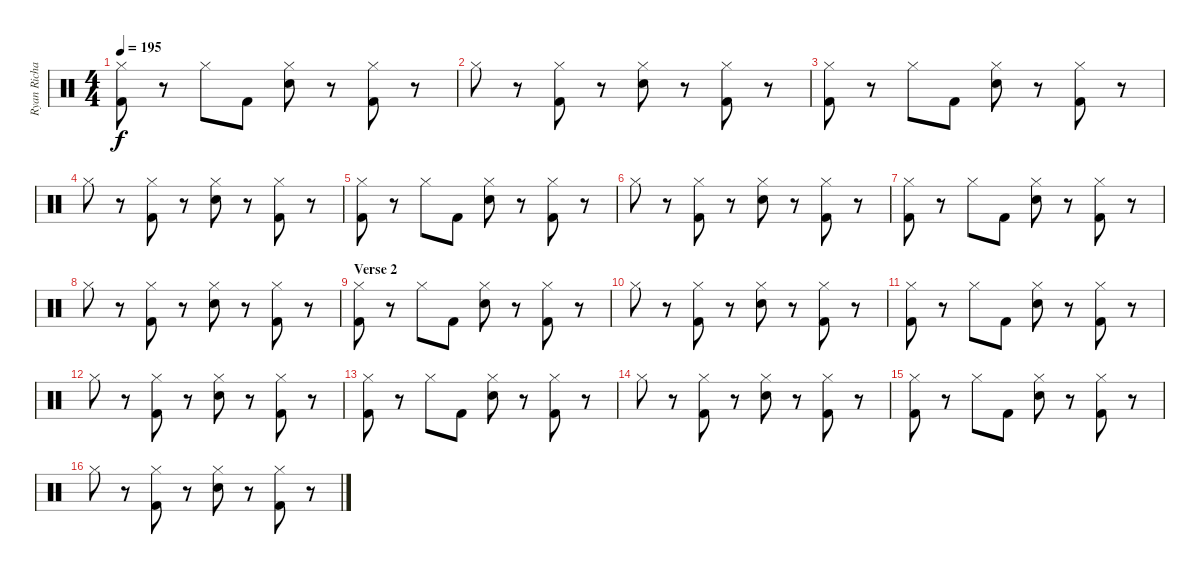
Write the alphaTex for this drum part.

\track ("Ryan Richards" "Ryan Richa") {instrument percussion}
\staff {score}
\articulation defaults
\ts (4 4)
\tempo 195
\clef neutral
\ks c
("Kick (hit) 2" "Hi-Hat (closed)").8{dy f} r.8 "Hi-Hat (closed)".8 "Kick (hit) 2".8 ("Hi-Hat (closed)" "Snare (hit) 2").8 r.8 ("Kick (hit) 2" "Hi-Hat (closed)").8 r.8 |
"Hi-Hat (closed)".8 r.8 ("Kick (hit) 2" "Hi-Hat (closed)").8 r.8 ("Hi-Hat (closed)" "Snare (hit) 2").8 r.8 ("Kick (hit) 2" "Hi-Hat (closed)").8 r.8 |
("Kick (hit) 2" "Hi-Hat (closed)").8 r.8 "Hi-Hat (closed)".8 "Kick (hit) 2".8 ("Hi-Hat (closed)" "Snare (hit) 2").8 r.8 ("Kick (hit) 2" "Hi-Hat (closed)").8 r.8 |
"Hi-Hat (closed)".8 r.8 ("Kick (hit) 2" "Hi-Hat (closed)").8 r.8 ("Hi-Hat (closed)" "Snare (hit) 2").8 r.8 ("Kick (hit) 2" "Hi-Hat (closed)").8 r.8 |
("Kick (hit) 2" "Hi-Hat (closed)").8 r.8 "Hi-Hat (closed)".8 "Kick (hit) 2".8 ("Hi-Hat (closed)" "Snare (hit) 2").8 r.8 ("Kick (hit) 2" "Hi-Hat (closed)").8 r.8 |
"Hi-Hat (closed)".8 r.8 ("Kick (hit) 2" "Hi-Hat (closed)").8 r.8 ("Hi-Hat (closed)" "Snare (hit) 2").8 r.8 ("Kick (hit) 2" "Hi-Hat (closed)").8 r.8 |
("Kick (hit) 2" "Hi-Hat (closed)").8 r.8 "Hi-Hat (closed)".8 "Kick (hit) 2".8 ("Hi-Hat (closed)" "Snare (hit) 2").8 r.8 ("Kick (hit) 2" "Hi-Hat (closed)").8 r.8 |
"Hi-Hat (closed)".8 r.8 ("Kick (hit) 2" "Hi-Hat (closed)").8 r.8 ("Hi-Hat (closed)" "Snare (hit) 2").8 r.8 ("Kick (hit) 2" "Hi-Hat (closed)").8 r.8 |
\section ("" "Verse 2")
("Kick (hit) 2" "Hi-Hat (closed)").8 r.8 "Hi-Hat (closed)".8 "Kick (hit) 2".8 ("Hi-Hat (closed)" "Snare (hit) 2").8 r.8 ("Kick (hit) 2" "Hi-Hat (closed)").8 r.8 |
"Hi-Hat (closed)".8 r.8 ("Kick (hit) 2" "Hi-Hat (closed)").8 r.8 ("Hi-Hat (closed)" "Snare (hit) 2").8 r.8 ("Kick (hit) 2" "Hi-Hat (closed)").8 r.8 |
("Kick (hit) 2" "Hi-Hat (closed)").8 r.8 "Hi-Hat (closed)".8 "Kick (hit) 2".8 ("Hi-Hat (closed)" "Snare (hit) 2").8 r.8 ("Kick (hit) 2" "Hi-Hat (closed)").8 r.8 |
"Hi-Hat (closed)".8 r.8 ("Kick (hit) 2" "Hi-Hat (closed)").8 r.8 ("Hi-Hat (closed)" "Snare (hit) 2").8 r.8 ("Kick (hit) 2" "Hi-Hat (closed)").8 r.8 |
("Kick (hit) 2" "Hi-Hat (closed)").8 r.8 "Hi-Hat (closed)".8 "Kick (hit) 2".8 ("Hi-Hat (closed)" "Snare (hit) 2").8 r.8 ("Kick (hit) 2" "Hi-Hat (closed)").8 r.8 |
"Hi-Hat (closed)".8 r.8 ("Kick (hit) 2" "Hi-Hat (closed)").8 r.8 ("Hi-Hat (closed)" "Snare (hit) 2").8 r.8 ("Kick (hit) 2" "Hi-Hat (closed)").8 r.8 |
("Kick (hit) 2" "Hi-Hat (closed)").8 r.8 "Hi-Hat (closed)".8 "Kick (hit) 2".8 ("Hi-Hat (closed)" "Snare (hit) 2").8 r.8 ("Kick (hit) 2" "Hi-Hat (closed)").8 r.8 |
"Hi-Hat (closed)".8 r.8 ("Kick (hit) 2" "Hi-Hat (closed)").8 r.8 ("Hi-Hat (closed)" "Snare (hit) 2").8 r.8 ("Kick (hit) 2" "Hi-Hat (closed)").8 r.8
